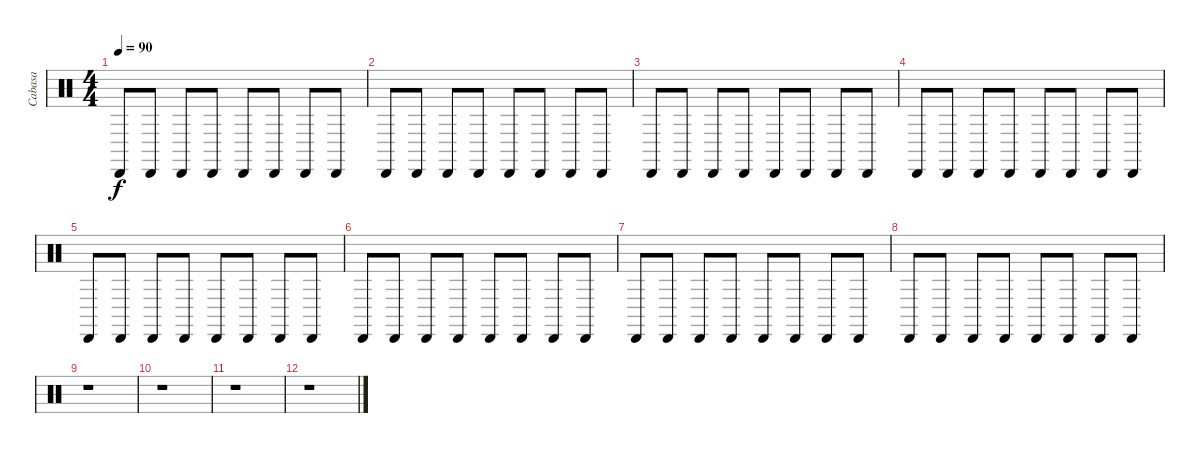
\track ("Cabasa" "Cabasa") {instrument percussion}
\staff {score}
\articulation defaults
\ts (4 4)
\tempo 90
\clef neutral
\ks c "Cabasa (hit)".8{dy f} "Cabasa (hit)".8 "Cabasa (hit)".8 "Cabasa (hit)".8 "Cabasa (hit)".8 "Cabasa (hit)".8 "Cabasa (hit)".8 "Cabasa (hit)".8
|
"Cabasa (hit)".8 "Cabasa (hit)".8 "Cabasa (hit)".8 "Cabasa (hit)".8 "Cabasa (hit)".8 "Cabasa (hit)".8 "Cabasa (hit)".8 "Cabasa (hit)".8 |
"Cabasa (hit)".8 "Cabasa (hit)".8 "Cabasa (hit)".8 "Cabasa (hit)".8 "Cabasa (hit)".8 "Cabasa (hit)".8 "Cabasa (hit)".8 "Cabasa (hit)".8 |
"Cabasa (hit)".8 "Cabasa (hit)".8 "Cabasa (hit)".8 "Cabasa (hit)".8 "Cabasa (hit)".8 "Cabasa (hit)".8 "Cabasa (hit)".8 "Cabasa (hit)".8 |
"Cabasa (hit)".8 "Cabasa (hit)".8 "Cabasa (hit)".8 "Cabasa (hit)".8 "Cabasa (hit)".8 "Cabasa (hit)".8 "Cabasa (hit)".8 "Cabasa (hit)".8 |
"Cabasa (hit)".8 "Cabasa (hit)".8 "Cabasa (hit)".8 "Cabasa (hit)".8 "Cabasa (hit)".8 "Cabasa (hit)".8 "Cabasa (hit)".8 "Cabasa (hit)".8 |
"Cabasa (hit)".8 "Cabasa (hit)".8 "Cabasa (hit)".8 "Cabasa (hit)".8 "Cabasa (hit)".8 "Cabasa (hit)".8 "Cabasa (hit)".8 "Cabasa (hit)".8 |
"Cabasa (hit)".8 "Cabasa (hit)".8 "Cabasa (hit)".8 "Cabasa (hit)".8 "Cabasa (hit)".8 "Cabasa (hit)".8 "Cabasa (hit)".8 "Cabasa (hit)".8 |
r.1 |
r.1 |
r.1 |
r.1
